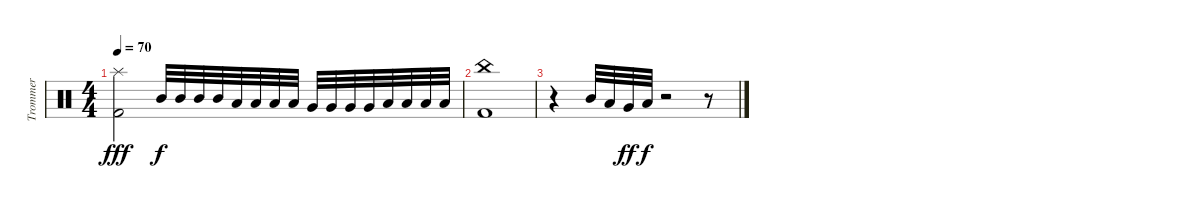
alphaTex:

\track ("Trommer" "Trommer") {instrument percussion}
\staff {score}
\articulation defaults
\ts (4 4)
\tempo 70
\clef neutral
\ks c
("Splash (hit)" "Kick (hit) 2").2{dy fff} "Mid Tom (hit)".32{dy f} "Mid Tom (hit)".32 "Mid Tom (hit)".32 "Mid Tom (hit)".32 "Low Tom (hit)".32 "Low Tom (hit)".32 "Low Tom (hit)".32 "Low Tom (hit)".32 "Very Low Tom (hit)".32 "Very Low Tom (hit)".32 "Very Low Tom (hit)".32 "Very Low Tom (hit)".32 "Low Floor Tom (hit)".32 "Low Floor Tom (hit)".32 "Low Floor Tom (hit)".32 "Low Floor Tom (hit)".32 |
("China (hit)" "Kick (hit) 2").1 |
r.4 "Mid Tom (hit)".32 "Low Tom (hit)".32 "Very Low Tom (hit)".32{dy ff} "Low Floor Tom (hit)".32{dy f} r.2 r.8
